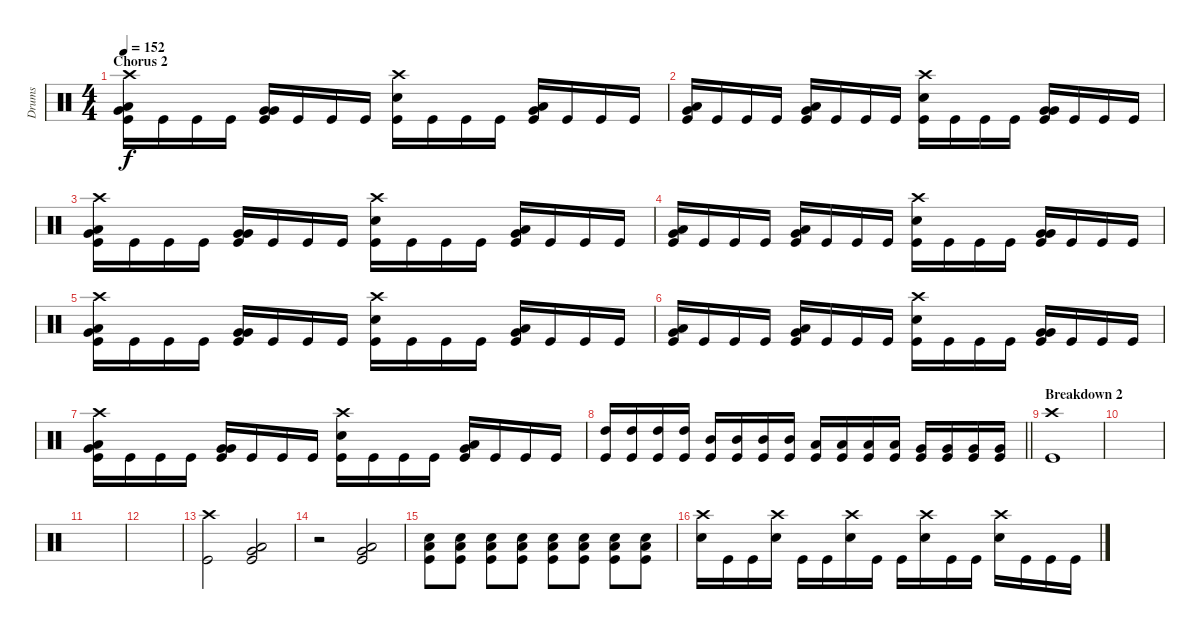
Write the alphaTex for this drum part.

\track ("Drums" "Drums") {instrument percussion}
\staff {score}
\articulation defaults
\ts (4 4)
\section ("" "Chorus 2")
\tempo 152
\clef neutral
\ks c
("Crash high (hit)" "Low Floor Tom (hit)" "Very Low Tom (hit)" "Kick (hit)").16{dy f} "Kick (hit)".16 "Kick (hit)".16 "Kick (hit)".16 ("Very Low Tom (hit)" "Very Low Tom (hit)" "Kick (hit)").16 "Kick (hit)".16 "Kick (hit)".16 "Kick (hit)".16 ("Crash high (hit)" "Snare (hit) 2" "Kick (hit)").16 "Kick (hit)".16 "Kick (hit)".16 "Kick (hit)".16 ("Very Low Tom (hit)" "Low Tom (hit)" "Kick (hit)").16 "Kick (hit)".16 "Kick (hit)".16 "Kick (hit)".16 |
("Low Tom (hit)" "Very Low Tom (hit)" "Kick (hit)").16 "Kick (hit)".16 "Kick (hit)".16 "Kick (hit)".16 ("Low Tom (hit)" "Very Low Tom (hit)" "Kick (hit)").16 "Kick (hit)".16 "Kick (hit)".16 "Kick (hit)".16 ("Snare (hit) 2" "Crash high (hit)" "Kick (hit)").16 "Kick (hit)".16 "Kick (hit)".16 "Kick (hit)".16 ("Very Low Tom (hit)" "Very Low Tom (hit)" "Kick (hit)").16 "Kick (hit)".16 "Kick (hit)".16 "Kick (hit)".16 |
("Crash high (hit)" "Low Floor Tom (hit)" "Very Low Tom (hit)" "Kick (hit)").16 "Kick (hit)".16 "Kick (hit)".16 "Kick (hit)".16 ("Very Low Tom (hit)" "Very Low Tom (hit)" "Kick (hit)").16 "Kick (hit)".16 "Kick (hit)".16 "Kick (hit)".16 ("Crash high (hit)" "Snare (hit) 2" "Kick (hit)").16 "Kick (hit)".16 "Kick (hit)".16 "Kick (hit)".16 ("Very Low Tom (hit)" "Low Tom (hit)" "Kick (hit)").16 "Kick (hit)".16 "Kick (hit)".16 "Kick (hit)".16 |
("Low Tom (hit)" "Very Low Tom (hit)" "Kick (hit)").16 "Kick (hit)".16 "Kick (hit)".16 "Kick (hit)".16 ("Low Tom (hit)" "Very Low Tom (hit)" "Kick (hit)").16 "Kick (hit)".16 "Kick (hit)".16 "Kick (hit)".16 ("Snare (hit) 2" "Crash high (hit)" "Kick (hit)").16 "Kick (hit)".16 "Kick (hit)".16 "Kick (hit)".16 ("Very Low Tom (hit)" "Very Low Tom (hit)" "Kick (hit)").16 "Kick (hit)".16 "Kick (hit)".16 "Kick (hit)".16 |
("Crash high (hit)" "Low Floor Tom (hit)" "Very Low Tom (hit)" "Kick (hit)").16 "Kick (hit)".16 "Kick (hit)".16 "Kick (hit)".16 ("Very Low Tom (hit)" "Very Low Tom (hit)" "Kick (hit)").16 "Kick (hit)".16 "Kick (hit)".16 "Kick (hit)".16 ("Crash high (hit)" "Snare (hit) 2" "Kick (hit)").16 "Kick (hit)".16 "Kick (hit)".16 "Kick (hit)".16 ("Very Low Tom (hit)" "Low Tom (hit)" "Kick (hit)").16 "Kick (hit)".16 "Kick (hit)".16 "Kick (hit)".16 |
("Low Tom (hit)" "Very Low Tom (hit)" "Kick (hit)").16 "Kick (hit)".16 "Kick (hit)".16 "Kick (hit)".16 ("Low Tom (hit)" "Very Low Tom (hit)" "Kick (hit)").16 "Kick (hit)".16 "Kick (hit)".16 "Kick (hit)".16 ("Snare (hit) 2" "Crash high (hit)" "Kick (hit)").16 "Kick (hit)".16 "Kick (hit)".16 "Kick (hit)".16 ("Very Low Tom (hit)" "Very Low Tom (hit)" "Kick (hit)").16 "Kick (hit)".16 "Kick (hit)".16 "Kick (hit)".16 |
("Crash high (hit)" "Low Floor Tom (hit)" "Very Low Tom (hit)" "Kick (hit)").16 "Kick (hit)".16 "Kick (hit)".16 "Kick (hit)".16 ("Very Low Tom (hit)" "Very Low Tom (hit)" "Kick (hit)").16 "Kick (hit)".16 "Kick (hit)".16 "Kick (hit)".16 ("Crash high (hit)" "Snare (hit) 2" "Kick (hit)").16 "Kick (hit)".16 "Kick (hit)".16 "Kick (hit)".16 ("Very Low Tom (hit)" "Low Tom (hit)" "Kick (hit)").16 "Kick (hit)".16 "Kick (hit)".16 "Kick (hit)".16 |
\barLineRight lightlight
("High Tom (hit)" "Kick (hit)").16 ("High Tom (hit)" "Kick (hit)").16 ("High Tom (hit)" "Kick (hit)").16 ("High Tom (hit)" "Kick (hit)").16 ("Mid Tom (hit)" "Kick (hit)").16 ("Mid Tom (hit)" "Kick (hit)").16 ("Mid Tom (hit)" "Kick (hit)").16 ("Mid Tom (hit)" "Kick (hit)").16 ("Low Tom (hit)" "Kick (hit)").16 ("Low Tom (hit)" "Kick (hit)").16 ("Low Tom (hit)" "Kick (hit)").16 ("Low Tom (hit)" "Kick (hit)").16 ("Very Low Tom (hit)" "Kick (hit)").16 ("Very Low Tom (hit)" "Kick (hit)").16 ("Very Low Tom (hit)" "Kick (hit)").16 ("Very Low Tom (hit)" "Kick (hit)").16 |
\section ("" "Breakdown 2")
("Crash high (hit)" "Kick (hit)").1 |
|
|
|
("Kick (hit)" "Crash high (hit)").2 ("Very Low Tom (hit)" "Low Tom (hit)" "Kick (hit)").2 |
r.2 ("Low Tom (hit)" "Very Low Tom (hit)" "Kick (hit)").2 |
("Low Floor Tom (hit)" "Snare (hit) 2" "Kick (hit)").8 ("Low Floor Tom (hit)" "Snare (hit) 2" "Kick (hit)").8 ("Low Floor Tom (hit)" "Snare (hit) 2" "Kick (hit)").8 ("Low Floor Tom (hit)" "Snare (hit) 2" "Kick (hit)").8 ("Low Floor Tom (hit)" "Snare (hit) 2" "Kick (hit)").8 ("Low Floor Tom (hit)" "Snare (hit) 2" "Kick (hit)").8 ("Low Floor Tom (hit)" "Snare (hit) 2" "Kick (hit)").8 ("Low Floor Tom (hit)" "Snare (hit) 2" "Kick (hit)").8 |
("Crash high (hit)" "Snare (hit) 2").16 "Kick (hit)".16 "Kick (hit)".16 ("Crash high (hit)" "Snare (hit) 2").16 "Kick (hit)".16 "Kick (hit)".16 ("Crash high (hit)" "Snare (hit) 2").16 "Kick (hit)".16 "Kick (hit)".16 ("Crash high (hit)" "Snare (hit) 2").16 "Kick (hit)".16 "Kick (hit)".16 ("Crash high (hit)" "Snare (hit) 2").16 "Kick (hit)".16 "Kick (hit)".16 "Kick (hit)".16
